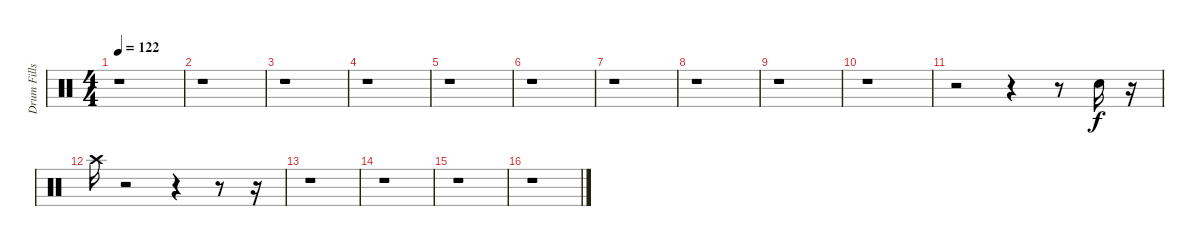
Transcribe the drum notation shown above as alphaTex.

\track ("Drum Fills etc" "Drum Fills") {instrument percussion}
\staff {score}
\articulation defaults
\ts (4 4)
\tempo 122
\clef neutral
\ks c
r.1{dy f} |
r.1 |
r.1 |
r.1 |
r.1 |
r.1 |
r.1 |
r.1 |
r.1 |
r.1 |
r.2 r.4 r.8 "Electric Snare (hit)".16 r.16 |
"Crash high (hit)".16 r.2 r.4 r.8 r.16 |
r.1 |
r.1 |
r.1 |
r.1
